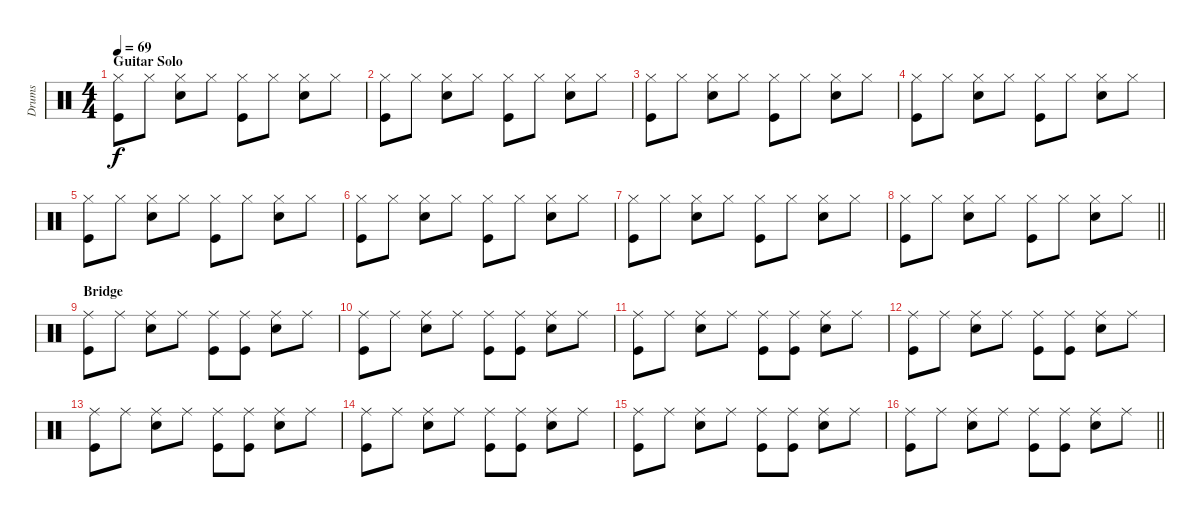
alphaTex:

\track ("Drums" "Drums") {instrument percussion}
\staff {score}
\articulation defaults
\ts (4 4)
\section ("" "Guitar Solo")
\tempo 69
\clef neutral
\ks c
("Hi-Hat (closed)" "Kick (hit)").8{dy f} "Hi-Hat (closed)".8 ("Hi-Hat (closed)" "Snare (hit) 2").8 "Hi-Hat (closed)".8 ("Hi-Hat (closed)" "Kick (hit)").8 "Hi-Hat (closed)".8 ("Hi-Hat (closed)" "Snare (hit) 2").8 "Hi-Hat (closed)".8 |
("Hi-Hat (closed)" "Kick (hit)").8 "Hi-Hat (closed)".8 ("Hi-Hat (closed)" "Snare (hit) 2").8 "Hi-Hat (closed)".8 ("Hi-Hat (closed)" "Kick (hit)").8 "Hi-Hat (closed)".8 ("Hi-Hat (closed)" "Snare (hit) 2").8 "Hi-Hat (closed)".8 |
("Hi-Hat (closed)" "Kick (hit)").8 "Hi-Hat (closed)".8 ("Hi-Hat (closed)" "Snare (hit) 2").8 "Hi-Hat (closed)".8 ("Hi-Hat (closed)" "Kick (hit)").8 "Hi-Hat (closed)".8 ("Hi-Hat (closed)" "Snare (hit) 2").8 "Hi-Hat (closed)".8 |
("Hi-Hat (closed)" "Kick (hit)").8 "Hi-Hat (closed)".8 ("Hi-Hat (closed)" "Snare (hit) 2").8 "Hi-Hat (closed)".8 ("Hi-Hat (closed)" "Kick (hit)").8 "Hi-Hat (closed)".8 ("Hi-Hat (closed)" "Snare (hit) 2").8 "Hi-Hat (closed)".8 |
("Hi-Hat (closed)" "Kick (hit)").8 "Hi-Hat (closed)".8 ("Hi-Hat (closed)" "Snare (hit) 2").8 "Hi-Hat (closed)".8 ("Hi-Hat (closed)" "Kick (hit)").8 "Hi-Hat (closed)".8 ("Hi-Hat (closed)" "Snare (hit) 2").8 "Hi-Hat (closed)".8 |
("Hi-Hat (closed)" "Kick (hit)").8 "Hi-Hat (closed)".8 ("Hi-Hat (closed)" "Snare (hit) 2").8 "Hi-Hat (closed)".8 ("Hi-Hat (closed)" "Kick (hit)").8 "Hi-Hat (closed)".8 ("Hi-Hat (closed)" "Snare (hit) 2").8 "Hi-Hat (closed)".8 |
("Hi-Hat (closed)" "Kick (hit)").8 "Hi-Hat (closed)".8 ("Hi-Hat (closed)" "Snare (hit) 2").8 "Hi-Hat (closed)".8 ("Hi-Hat (closed)" "Kick (hit)").8 "Hi-Hat (closed)".8 ("Hi-Hat (closed)" "Snare (hit) 2").8 "Hi-Hat (closed)".8 |
\barLineRight lightlight
("Hi-Hat (closed)" "Kick (hit)").8 "Hi-Hat (closed)".8 ("Hi-Hat (closed)" "Snare (hit) 2").8 "Hi-Hat (closed)".8 ("Hi-Hat (closed)" "Kick (hit)").8 "Hi-Hat (closed)".8 ("Hi-Hat (closed)" "Snare (hit) 2").8 "Hi-Hat (closed)".8 |
\section ("" "Bridge")
("Ride (middle)" "Kick (hit)").8 "Ride (middle)".8 ("Ride (middle)" "Snare (hit) 2").8 "Ride (middle)".8 ("Ride (middle)" "Kick (hit)").8 ("Ride (middle)" "Kick (hit)").8 ("Ride (middle)" "Snare (hit) 2").8 "Ride (middle)".8 |
("Ride (middle)" "Kick (hit)").8 "Ride (middle)".8 ("Ride (middle)" "Snare (hit) 2").8 "Ride (middle)".8 ("Ride (middle)" "Kick (hit)").8 ("Ride (middle)" "Kick (hit)").8 ("Ride (middle)" "Snare (hit) 2").8 "Ride (middle)".8 |
("Ride (middle)" "Kick (hit)").8 "Ride (middle)".8 ("Ride (middle)" "Snare (hit) 2").8 "Ride (middle)".8 ("Ride (middle)" "Kick (hit)").8 ("Ride (middle)" "Kick (hit)").8 ("Ride (middle)" "Snare (hit) 2").8 "Ride (middle)".8 |
("Ride (middle)" "Kick (hit)").8 "Ride (middle)".8 ("Ride (middle)" "Snare (hit) 2").8 "Ride (middle)".8 ("Ride (middle)" "Kick (hit)").8 ("Ride (middle)" "Kick (hit)").8 ("Ride (middle)" "Snare (hit) 2").8 "Ride (middle)".8 |
("Ride (middle)" "Kick (hit)").8 "Ride (middle)".8 ("Ride (middle)" "Snare (hit) 2").8 "Ride (middle)".8 ("Ride (middle)" "Kick (hit)").8 ("Ride (middle)" "Kick (hit)").8 ("Ride (middle)" "Snare (hit) 2").8 "Ride (middle)".8 |
("Ride (middle)" "Kick (hit)").8 "Ride (middle)".8 ("Ride (middle)" "Snare (hit) 2").8 "Ride (middle)".8 ("Ride (middle)" "Kick (hit)").8 ("Ride (middle)" "Kick (hit)").8 ("Ride (middle)" "Snare (hit) 2").8 "Ride (middle)".8 |
("Ride (middle)" "Kick (hit)").8 "Ride (middle)".8 ("Ride (middle)" "Snare (hit) 2").8 "Ride (middle)".8 ("Ride (middle)" "Kick (hit)").8 ("Ride (middle)" "Kick (hit)").8 ("Ride (middle)" "Snare (hit) 2").8 "Ride (middle)".8 |
\barLineRight lightlight
("Ride (middle)" "Kick (hit)").8 "Ride (middle)".8 ("Ride (middle)" "Snare (hit) 2").8 "Ride (middle)".8 ("Ride (middle)" "Kick (hit)").8 ("Ride (middle)" "Kick (hit)").8 ("Ride (middle)" "Snare (hit) 2").8 "Ride (middle)".8
